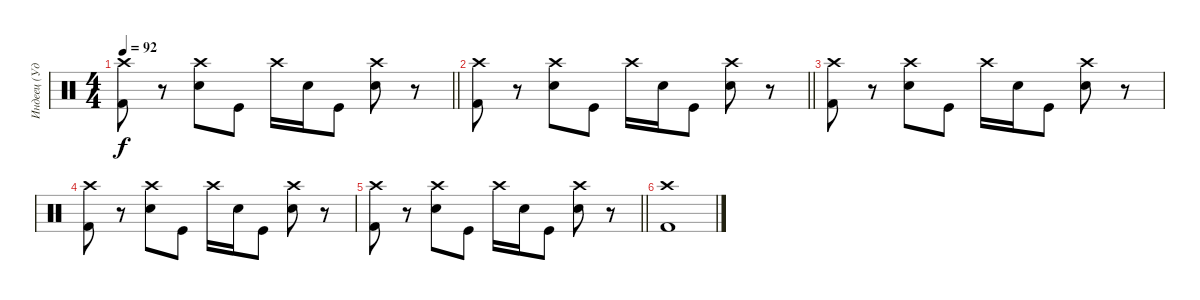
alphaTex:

\track ("Индеец (Ударные)" "Индеец (Уд") {instrument percussion}
\staff {score}
\articulation defaults
\ts (4 4)
\tempo 92
\clef neutral
\barLineRight lightlight
\ks c
("Crash high (hit)" "Kick (hit) 2").8{dy f} r.8 ("Crash high (hit)" "Electric Snare (hit)").8 "Kick (hit)".8 "Crash high (hit)".16 "Electric Snare (hit)".16 "Kick (hit)".8 ("Crash high (hit)" "Electric Snare (hit)").8 r.8 |
\barLineRight lightlight
("Crash high (hit)" "Kick (hit) 2").8 r.8 ("Crash high (hit)" "Electric Snare (hit)").8 "Kick (hit)".8 "Crash high (hit)".16 "Electric Snare (hit)".16 "Kick (hit)".8 ("Crash high (hit)" "Electric Snare (hit)").8 r.8 |
("Crash high (hit)" "Kick (hit) 2").8 r.8 ("Crash high (hit)" "Electric Snare (hit)").8 "Kick (hit)".8 "Crash high (hit)".16 "Electric Snare (hit)".16 "Kick (hit)".8 ("Crash high (hit)" "Electric Snare (hit)").8 r.8 |
("Crash high (hit)" "Kick (hit) 2").8 r.8 ("Crash high (hit)" "Electric Snare (hit)").8 "Kick (hit)".8 "Crash high (hit)".16 "Electric Snare (hit)".16 "Kick (hit)".8 ("Crash high (hit)" "Electric Snare (hit)").8 r.8 |
\barLineRight lightlight
("Crash high (hit)" "Kick (hit) 2").8 r.8 ("Crash high (hit)" "Electric Snare (hit)").8 "Kick (hit)".8 "Crash high (hit)".16 "Electric Snare (hit)".16 "Kick (hit)".8 ("Crash high (hit)" "Electric Snare (hit)").8 r.8 |
("Crash high (hit)" "Kick (hit) 2").1
